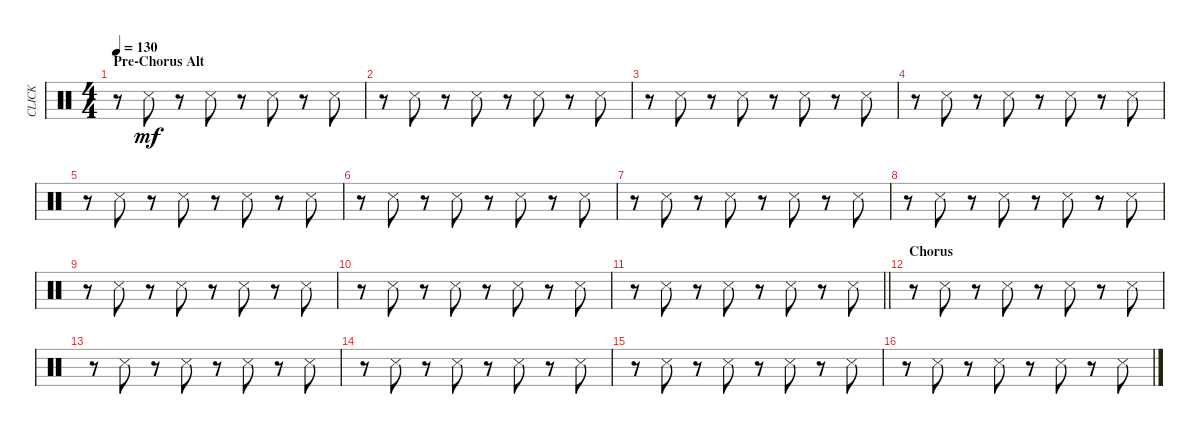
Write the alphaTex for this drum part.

\track ("CLICK" "CLICK") {instrument percussion}
\staff {score}
\articulation defaults
\ts (4 4)
\section ("" "Pre-Chorus Alt")
\tempo 130
\clef neutral
\ks c
r.8{dy mf} "Snare (side stick) 3".8 r.8 "Snare (side stick) 3".8 r.8 "Snare (side stick) 3".8 r.8 "Snare (side stick) 3".8 |
r.8 "Snare (side stick) 3".8 r.8 "Snare (side stick) 3".8 r.8 "Snare (side stick) 3".8 r.8 "Snare (side stick) 3".8 |
r.8 "Snare (side stick) 3".8 r.8 "Snare (side stick) 3".8 r.8 "Snare (side stick) 3".8 r.8 "Snare (side stick) 3".8 |
r.8 "Snare (side stick) 3".8 r.8 "Snare (side stick) 3".8 r.8 "Snare (side stick) 3".8 r.8 "Snare (side stick) 3".8 |
r.8 "Snare (side stick) 3".8 r.8 "Snare (side stick) 3".8 r.8 "Snare (side stick) 3".8 r.8 "Snare (side stick) 3".8 |
r.8 "Snare (side stick) 3".8 r.8 "Snare (side stick) 3".8 r.8 "Snare (side stick) 3".8 r.8 "Snare (side stick) 3".8 |
r.8 "Snare (side stick) 3".8 r.8 "Snare (side stick) 3".8 r.8 "Snare (side stick) 3".8 r.8 "Snare (side stick) 3".8 |
r.8 "Snare (side stick) 3".8 r.8 "Snare (side stick) 3".8 r.8 "Snare (side stick) 3".8 r.8 "Snare (side stick) 3".8 |
r.8 "Snare (side stick) 3".8 r.8 "Snare (side stick) 3".8 r.8 "Snare (side stick) 3".8 r.8 "Snare (side stick) 3".8 |
r.8 "Snare (side stick) 3".8 r.8 "Snare (side stick) 3".8 r.8 "Snare (side stick) 3".8 r.8 "Snare (side stick) 3".8 |
\barLineRight lightlight
r.8 "Snare (side stick) 3".8 r.8 "Snare (side stick) 3".8 r.8 "Snare (side stick) 3".8 r.8 "Snare (side stick) 3".8 |
\section ("" "Chorus")
r.8 "Snare (side stick) 3".8 r.8 "Snare (side stick) 3".8 r.8 "Snare (side stick) 3".8 r.8 "Snare (side stick) 3".8 |
r.8 "Snare (side stick) 3".8 r.8 "Snare (side stick) 3".8 r.8 "Snare (side stick) 3".8 r.8 "Snare (side stick) 3".8 |
r.8 "Snare (side stick) 3".8 r.8 "Snare (side stick) 3".8 r.8 "Snare (side stick) 3".8 r.8 "Snare (side stick) 3".8 |
r.8 "Snare (side stick) 3".8 r.8 "Snare (side stick) 3".8 r.8 "Snare (side stick) 3".8 r.8 "Snare (side stick) 3".8 |
r.8 "Snare (side stick) 3".8 r.8 "Snare (side stick) 3".8 r.8 "Snare (side stick) 3".8 r.8 "Snare (side stick) 3".8
